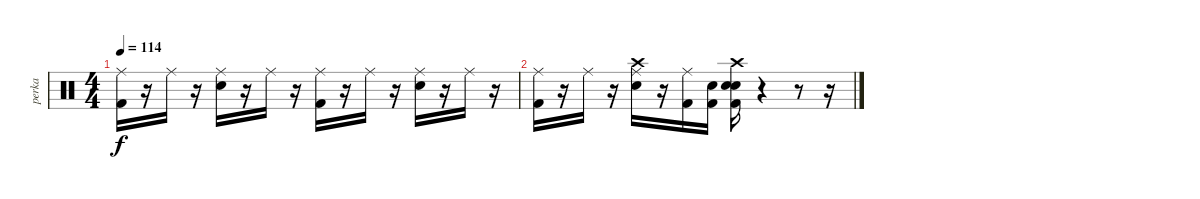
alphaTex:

\track ("perka" "perka") {instrument percussion}
\staff {score}
\articulation defaults
\ts (4 4)
\tempo 114
\clef neutral
\ks c
("Kick (hit) 2" "Ride (middle)").16{dy f} r.16 "Ride (middle)".16 r.16 ("Snare (hit) 2" "Ride (middle)").16 r.16 "Ride (middle)".16 r.16 ("Kick (hit) 2" "Ride (middle)").16 r.16 "Ride (middle)".16 r.16 ("Snare (hit) 2" "Ride (middle)").16 r.16 "Ride (middle)".16 r.16 |
("Kick (hit) 2" "Ride (middle)").16 r.16 "Ride (middle)".16 r.16 ("Crash high (hit)" "Snare (hit) 2" "Ride (middle)").16 r.16 ("Kick (hit) 2" "Ride (middle)").16 ("Snare (hit)" "Kick (hit) 2").16 ("Snare (hit)" "Crash high (hit)" "Kick (hit) 2" "Snare (hit) 2").16 r.4 r.8 r.16
